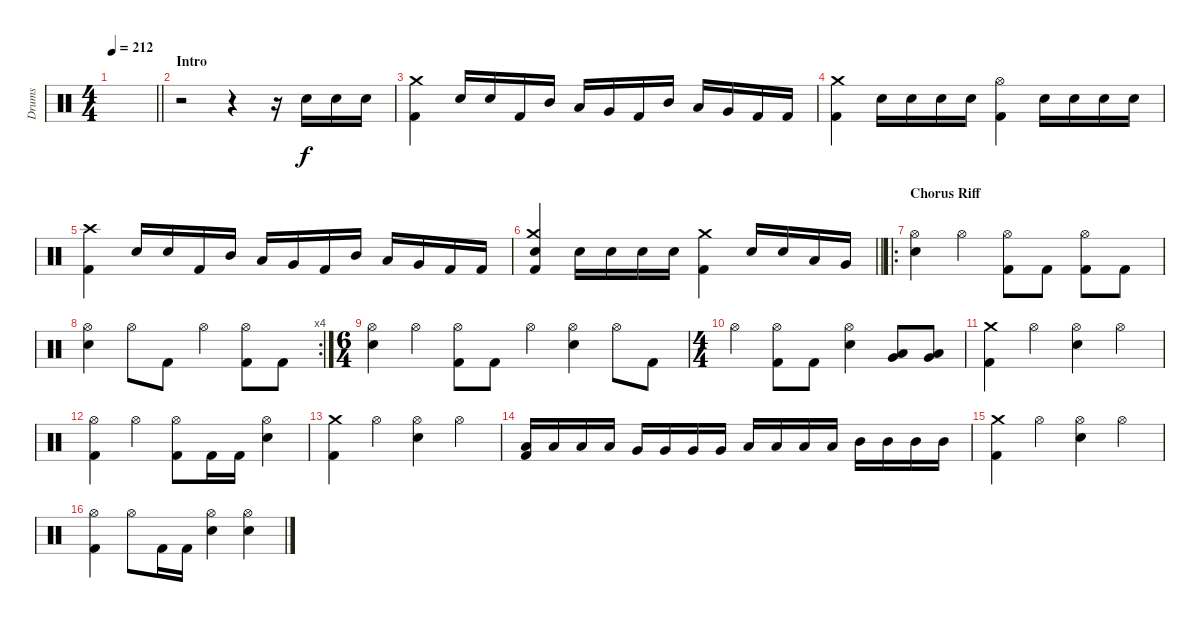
\track ("Drums" "Drums") {instrument percussion}
\staff {score}
\articulation defaults
\ts (4 4)
\tempo 212
\clef neutral
\barLineRight lightlight
\ks c
|
\section ("" "Intro")
r.2 r.4 r.16 "Electric Snare (hit)".16 "Electric Snare (hit)".16 "Electric Snare (hit)".16 |
("Crash medium (hit)" "Kick (hit) 2").4 "Electric Snare (hit)".16 "Electric Snare (hit)".16 "Kick (hit) 2".16 "Mid Tom (hit)".16 "Low Tom (hit)".16 "Very Low Tom (hit)".16 "Kick (hit) 2".16 "Mid Tom (hit)".16 "Low Tom (hit)".16 "Very Low Tom (hit)".16 "Kick (hit) 2".16 "Kick (hit) 2".16 |
("Crash medium (hit)" "Kick (hit) 2").4 "Electric Snare (hit)".16 "Electric Snare (hit)".16 "Electric Snare (hit)".16 "Electric Snare (hit)".16 ("Hi-Hat (open)" "Kick (hit) 2").4 "Electric Snare (hit)".16 "Electric Snare (hit)".16 "Electric Snare (hit)".16 "Electric Snare (hit)".16 |
("Crash high (hit)" "Kick (hit) 2").4 "Electric Snare (hit)".16 "Electric Snare (hit)".16 "Kick (hit) 2".16 "Mid Tom (hit)".16 "Low Tom (hit)".16 "Very Low Tom (hit)".16 "Kick (hit) 2".16 "Mid Tom (hit)".16 "Low Tom (hit)".16 "Very Low Tom (hit)".16 "Kick (hit) 2".16 "Kick (hit) 2".16 |
\barLineRight lightlight
("Crash medium (hit)" "Electric Snare (hit)" "Kick (hit) 2").4 "Electric Snare (hit)".16 "Electric Snare (hit)".16 "Electric Snare (hit)".16 "Electric Snare (hit)".16 ("Crash medium (hit)" "Kick (hit) 2").4 "Electric Snare (hit)".16 "Electric Snare (hit)".16 "Low Tom (hit)".16 "Very Low Tom (hit)".16 |
\ro
\section ("" "Chorus Riff")
("Hi-Hat (open)" "Electric Snare (hit)").4 "Hi-Hat (open)".4 ("Hi-Hat (open)" "Kick (hit) 2").8 "Kick (hit) 2".8 ("Hi-Hat (open)" "Kick (hit) 2").8 "Kick (hit) 2".8 |
\rc 4
("Hi-Hat (open)" "Electric Snare (hit)").4 "Hi-Hat (open)".8 "Kick (hit) 2".8 "Hi-Hat (open)".4 ("Hi-Hat (open)" "Kick (hit) 2").8 "Kick (hit) 2".8 |
\ts (6 4)
("Hi-Hat (open)" "Electric Snare (hit)").4 "Hi-Hat (open)".4 ("Hi-Hat (open)" "Kick (hit) 2").8 "Kick (hit) 2".8 "Hi-Hat (open)".4 ("Hi-Hat (open)" "Electric Snare (hit)").4 "Hi-Hat (open)".8 "Kick (hit) 2".8 |
\ts (4 4)
"Hi-Hat (open)".4 ("Hi-Hat (open)" "Kick (hit) 2").8 "Kick (hit) 2".8 ("Hi-Hat (open)" "Electric Snare (hit)").4 ("Low Tom (hit)" "Very Low Tom (hit)").8 ("Low Tom (hit)" "Very Low Tom (hit)").8 |
("Crash medium (hit)" "Kick (hit) 2").4 "Hi-Hat (open)".4 ("Hi-Hat (open)" "Electric Snare (hit)").4 "Hi-Hat (open)".4 |
("Hi-Hat (open)" "Kick (hit) 2").4 "Hi-Hat (open)".4 ("Hi-Hat (open)" "Kick (hit) 2").8 "Kick (hit) 2".16 "Kick (hit) 2".16 ("Hi-Hat (open)" "Electric Snare (hit)").4 |
("Crash medium (hit)" "Kick (hit) 2").4 "Hi-Hat (open)".4 ("Hi-Hat (open)" "Electric Snare (hit)").4 "Hi-Hat (open)".4 |
("Low Floor Tom (hit)" "Kick (hit) 2").16 "Low Floor Tom (hit)".16 "Low Floor Tom (hit)".16 "Low Floor Tom (hit)".16 "Very Low Tom (hit)".16 "Very Low Tom (hit)".16 "Very Low Tom (hit)".16 "Very Low Tom (hit)".16 "Low Tom (hit)".16 "Low Tom (hit)".16 "Low Tom (hit)".16 "Low Tom (hit)".16 "Mid Tom (hit)".16 "Mid Tom (hit)".16 "Mid Tom (hit)".16 "Mid Tom (hit)".16 |
("Crash medium (hit)" "Kick (hit) 2").4 "Hi-Hat (open)".4 ("Hi-Hat (open)" "Electric Snare (hit)").4 "Hi-Hat (open)".4 |
("Hi-Hat (open)" "Kick (hit) 2").4 "Hi-Hat (open)".8 "Kick (hit) 2".16 "Kick (hit) 2".16 ("Hi-Hat (open)" "Electric Snare (hit)").4 ("Hi-Hat (open)" "Electric Snare (hit)").4
